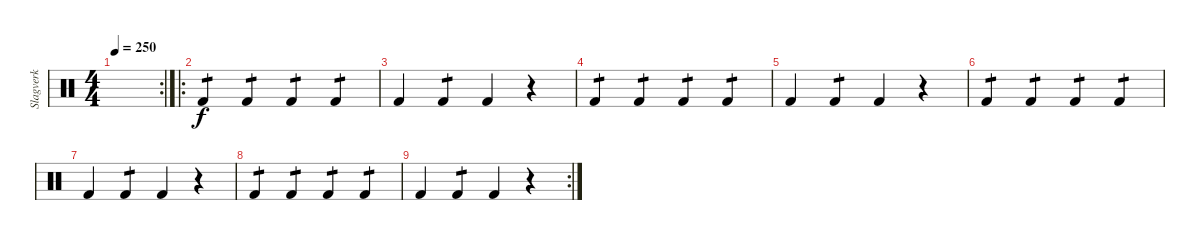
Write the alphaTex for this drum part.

\track ("Slagverk" "Slagverk") {instrument percussion}
\staff {score}
\articulation defaults
\rc 2
\ts (4 4)
\tempo 250
\clef neutral
\ks c
|
\ro "Kick (hit) 2".4{tp 1} "Kick (hit) 2".4{tp 1} "Kick (hit) 2".4{tp 1} "Kick (hit) 2".4{tp 1}
|
"Kick (hit) 2".4 "Kick (hit) 2".4{tp 1} "Kick (hit) 2".4 r.4 |
"Kick (hit) 2".4{tp 1} "Kick (hit) 2".4{tp 1} "Kick (hit) 2".4{tp 1} "Kick (hit) 2".4{tp 1} |
"Kick (hit) 2".4 "Kick (hit) 2".4{tp 1} "Kick (hit) 2".4 r.4 |
"Kick (hit) 2".4{tp 1} "Kick (hit) 2".4{tp 1} "Kick (hit) 2".4{tp 1} "Kick (hit) 2".4{tp 1} |
"Kick (hit) 2".4 "Kick (hit) 2".4{tp 1} "Kick (hit) 2".4 r.4 |
"Kick (hit) 2".4{tp 1} "Kick (hit) 2".4{tp 1} "Kick (hit) 2".4{tp 1} "Kick (hit) 2".4{tp 1} |
\rc 2 "Kick (hit) 2".4 "Kick (hit) 2".4{tp 1} "Kick (hit) 2".4
r.4
